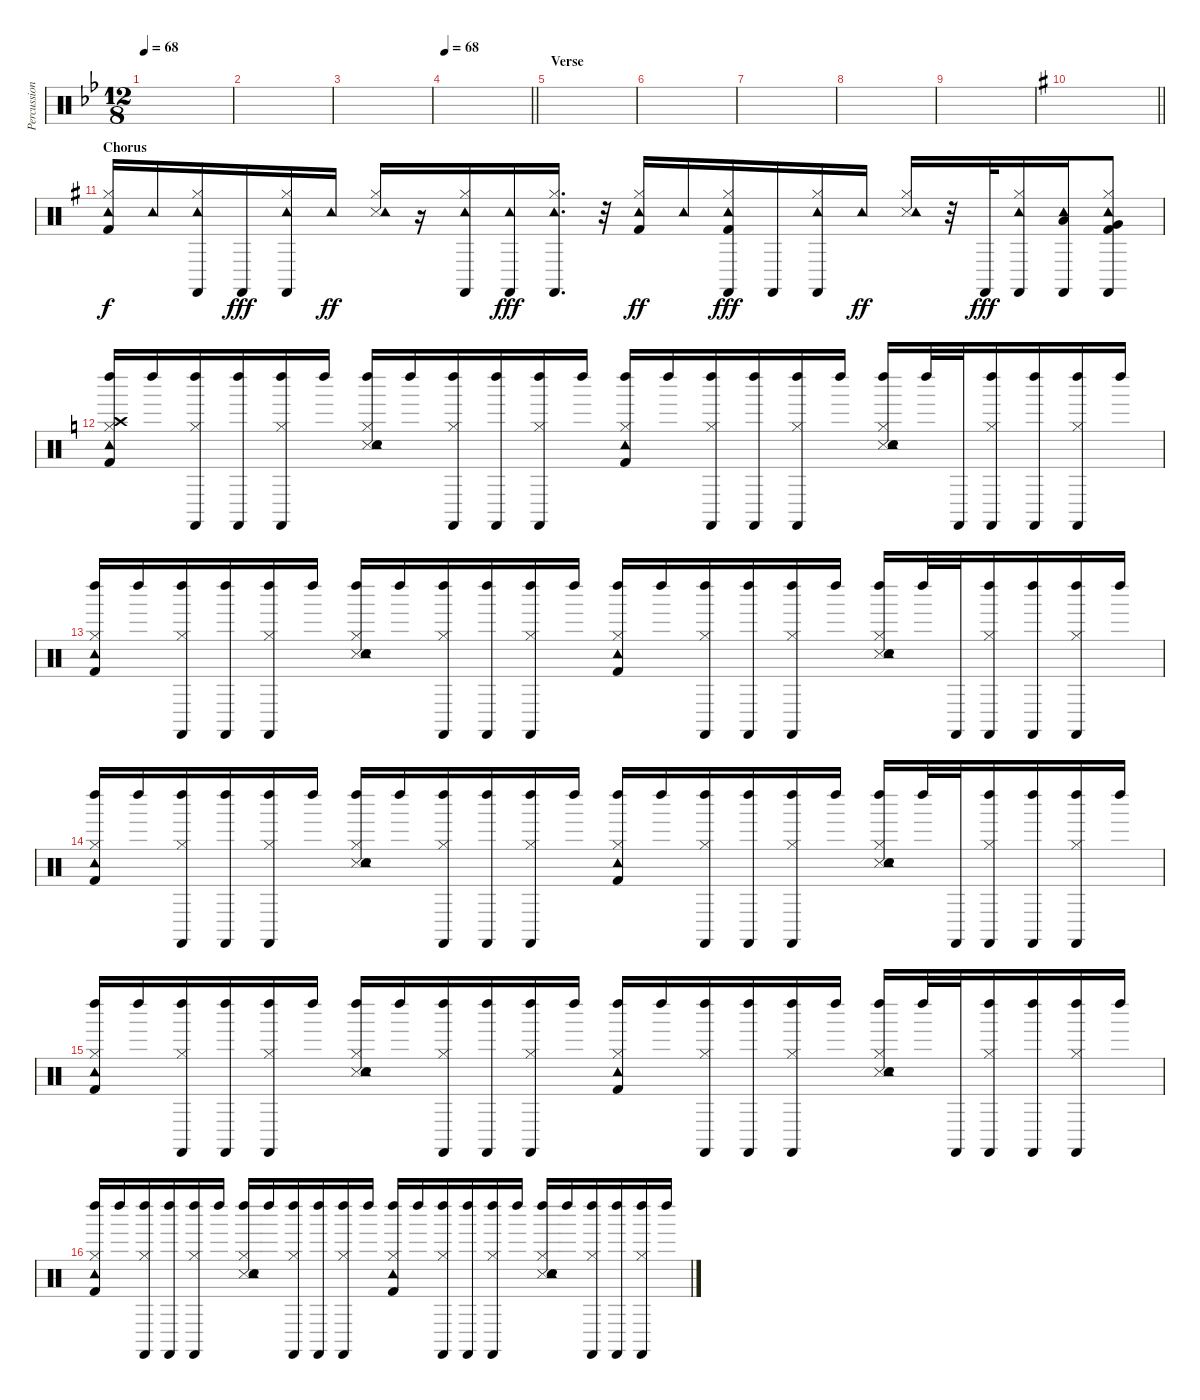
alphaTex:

\track ("Percussion" "Percussion") {instrument percussion}
\staff {score}
\articulation defaults
\ts (12 8)
\tempo 68
\tempo 120
\tempo 68
\clef neutral
\ks gminor
|
|
|
\tempo 68
\barLineRight lightlight
|
\section ("" "Verse")
|
|
|
|
|
\barLineRight lightlight
\ks g
|
\section ("" "Chorus")
("Kick (hit) 2" "Hi-Hat (closed)" "Tambourine (hit)").16{balance 6} "Tambourine (hit)".16 ("Hi-Hat (closed)" "Castanets (hit)" "Tambourine (hit)").16 "Castanets (hit)".16{dy fff} ("Hi-Hat (closed)" "Tambourine (hit)" "Castanets (hit)").16 "Tambourine (hit)".16{dy ff} ("Snare (side stick) 3" "Hi-Hat (closed)" "Tambourine (hit)").16 r.16 ("Hi-Hat (closed)" "Castanets (hit)" "Tambourine (hit)").16 ("Tambourine (hit)" "Castanets (hit)").16{dy fff} ("Hi-Hat (closed)" "Tambourine (hit)" "Castanets (hit)").16{d} r.32 ("Kick (hit) 2" "Hi-Hat (closed)" "Tambourine (hit)").16{dy ff} "Tambourine (hit)".16 ("Kick (hit) 2" "Hi-Hat (closed)" "Tambourine (hit)" "Castanets (hit)").16{dy fff} "Castanets (hit)".16 ("Hi-Hat (closed)" "Tambourine (hit)" "Castanets (hit)").16 "Tambourine (hit)".16{dy ff} ("Snare (side stick) 3" "Hi-Hat (closed)" "Tambourine (hit)").16 r.32 "Castanets (hit)".32{dy fff} ("Hi-Hat (closed)" "Tambourine (hit)" "Castanets (hit)").16 ("Low Tom (hit)" "Tambourine (hit)" "Castanets (hit)").16 ("Hi-Hat (closed)" "Kick (hit) 2" "Tambourine (hit)" "Very Low Tom (hit)" "Castanets (hit)").8 |
\ks c
("Hi-Hat (closed)" "Kick (hit) 2" "Tambourine (hit)" "Crash high (hit)" "Left Maraca (hit)").16 "Left Maraca (hit)".16 ("Hi-Hat (closed)" "Left Maraca (hit)" "Castanets (hit)").16 ("Left Maraca (hit)" "Castanets (hit)").16 ("Hi-Hat (closed)" "Left Maraca (hit)" "Castanets (hit)").16 "Left Maraca (hit)".16 ("Snare (side stick) 3" "Tambourine (hit)" "Hi-Hat (closed)" "Snare (hit) 2" "Left Maraca (hit)").16 "Left Maraca (hit)".16 ("Hi-Hat (closed)" "Left Maraca (hit)" "Castanets (hit)").16 ("Left Maraca (hit)" "Castanets (hit)").16 ("Hi-Hat (closed)" "Left Maraca (hit)" "Castanets (hit)").16 "Left Maraca (hit)".16 ("Kick (hit) 2" "Hi-Hat (closed)" "Tambourine (hit)" "Left Maraca (hit)").16 "Left Maraca (hit)".16 ("Hi-Hat (closed)" "Left Maraca (hit)" "Castanets (hit)").16 ("Left Maraca (hit)" "Castanets (hit)").16 ("Hi-Hat (closed)" "Left Maraca (hit)" "Castanets (hit)").16 "Left Maraca (hit)".16 ("Snare (side stick) 3" "Hi-Hat (closed)" "Tambourine (hit)" "Snare (hit) 2" "Left Maraca (hit)").16 "Left Maraca (hit)".32 "Castanets (hit)".32 ("Hi-Hat (closed)" "Left Maraca (hit)" "Castanets (hit)").16 ("Left Maraca (hit)" "Castanets (hit)").16 ("Hi-Hat (closed)" "Left Maraca (hit)" "Castanets (hit)").16 "Left Maraca (hit)".16 |
("Kick (hit) 2" "Hi-Hat (closed)" "Tambourine (hit)" "Left Maraca (hit)").16 "Left Maraca (hit)".16 ("Hi-Hat (closed)" "Left Maraca (hit)" "Castanets (hit)").16 ("Left Maraca (hit)" "Castanets (hit)").16 ("Hi-Hat (closed)" "Left Maraca (hit)" "Castanets (hit)").16 "Left Maraca (hit)".16 ("Snare (side stick) 3" "Hi-Hat (closed)" "Tambourine (hit)" "Snare (hit) 2" "Left Maraca (hit)").16 "Left Maraca (hit)".16 ("Hi-Hat (closed)" "Left Maraca (hit)" "Castanets (hit)").16 ("Left Maraca (hit)" "Castanets (hit)").16 ("Hi-Hat (closed)" "Left Maraca (hit)" "Castanets (hit)").16 "Left Maraca (hit)".16 ("Kick (hit) 2" "Hi-Hat (closed)" "Tambourine (hit)" "Left Maraca (hit)").16 "Left Maraca (hit)".16 ("Hi-Hat (closed)" "Left Maraca (hit)" "Castanets (hit)").16 ("Left Maraca (hit)" "Castanets (hit)").16 ("Hi-Hat (closed)" "Left Maraca (hit)" "Castanets (hit)").16 "Left Maraca (hit)".16 ("Snare (side stick) 3" "Hi-Hat (closed)" "Tambourine (hit)" "Snare (hit) 2" "Left Maraca (hit)").16 "Left Maraca (hit)".32 "Castanets (hit)".32 ("Hi-Hat (closed)" "Left Maraca (hit)" "Castanets (hit)").16 ("Left Maraca (hit)" "Castanets (hit)").16 ("Hi-Hat (closed)" "Left Maraca (hit)" "Castanets (hit)").16 "Left Maraca (hit)".16 |
("Kick (hit) 2" "Hi-Hat (closed)" "Tambourine (hit)" "Left Maraca (hit)").16 "Left Maraca (hit)".16 ("Hi-Hat (closed)" "Left Maraca (hit)" "Castanets (hit)").16 ("Left Maraca (hit)" "Castanets (hit)").16 ("Hi-Hat (closed)" "Left Maraca (hit)" "Castanets (hit)").16 "Left Maraca (hit)".16 ("Snare (side stick) 3" "Hi-Hat (closed)" "Tambourine (hit)" "Snare (hit) 2" "Left Maraca (hit)").16 "Left Maraca (hit)".16 ("Hi-Hat (closed)" "Left Maraca (hit)" "Castanets (hit)").16 ("Left Maraca (hit)" "Castanets (hit)").16 ("Hi-Hat (closed)" "Left Maraca (hit)" "Castanets (hit)").16 "Left Maraca (hit)".16 ("Kick (hit) 2" "Hi-Hat (closed)" "Tambourine (hit)" "Left Maraca (hit)").16 "Left Maraca (hit)".16 ("Hi-Hat (closed)" "Left Maraca (hit)" "Castanets (hit)").16 ("Left Maraca (hit)" "Castanets (hit)").16 ("Hi-Hat (closed)" "Left Maraca (hit)" "Castanets (hit)").16 "Left Maraca (hit)".16 ("Snare (side stick) 3" "Hi-Hat (closed)" "Tambourine (hit)" "Snare (hit) 2" "Left Maraca (hit)").16 "Left Maraca (hit)".32 "Castanets (hit)".32 ("Hi-Hat (closed)" "Left Maraca (hit)" "Castanets (hit)").16 ("Left Maraca (hit)" "Castanets (hit)").16 ("Hi-Hat (closed)" "Left Maraca (hit)" "Castanets (hit)").16 "Left Maraca (hit)".16 |
("Kick (hit) 2" "Hi-Hat (closed)" "Tambourine (hit)" "Left Maraca (hit)").16 "Left Maraca (hit)".16 ("Hi-Hat (closed)" "Left Maraca (hit)" "Castanets (hit)").16 ("Left Maraca (hit)" "Castanets (hit)").16 ("Hi-Hat (closed)" "Left Maraca (hit)" "Castanets (hit)").16 "Left Maraca (hit)".16 ("Snare (side stick) 3" "Hi-Hat (closed)" "Tambourine (hit)" "Snare (hit) 2" "Left Maraca (hit)").16 "Left Maraca (hit)".16 ("Hi-Hat (closed)" "Left Maraca (hit)" "Castanets (hit)").16 ("Left Maraca (hit)" "Castanets (hit)").16 ("Hi-Hat (closed)" "Left Maraca (hit)" "Castanets (hit)").16 "Left Maraca (hit)".16 ("Kick (hit) 2" "Hi-Hat (closed)" "Tambourine (hit)" "Left Maraca (hit)").16 "Left Maraca (hit)".16 ("Hi-Hat (closed)" "Left Maraca (hit)" "Castanets (hit)").16 ("Left Maraca (hit)" "Castanets (hit)").16 ("Hi-Hat (closed)" "Left Maraca (hit)" "Castanets (hit)").16 "Left Maraca (hit)".16 ("Snare (side stick) 3" "Hi-Hat (closed)" "Tambourine (hit)" "Snare (hit) 2" "Left Maraca (hit)").16 "Left Maraca (hit)".32 "Castanets (hit)".32 ("Hi-Hat (closed)" "Left Maraca (hit)" "Castanets (hit)").16 ("Left Maraca (hit)" "Castanets (hit)").16 ("Hi-Hat (closed)" "Left Maraca (hit)" "Castanets (hit)").16 "Left Maraca (hit)".16 |
("Kick (hit) 2" "Hi-Hat (closed)" "Tambourine (hit)" "Left Maraca (hit)").16 "Left Maraca (hit)".16 ("Hi-Hat (closed)" "Left Maraca (hit)" "Castanets (hit)").16 ("Left Maraca (hit)" "Castanets (hit)").16 ("Hi-Hat (closed)" "Left Maraca (hit)" "Castanets (hit)").16 "Left Maraca (hit)".16 ("Snare (side stick) 3" "Hi-Hat (closed)" "Tambourine (hit)" "Snare (hit) 2" "Left Maraca (hit)").16 "Left Maraca (hit)".16 ("Hi-Hat (closed)" "Left Maraca (hit)" "Castanets (hit)").16 ("Left Maraca (hit)" "Castanets (hit)").16 ("Hi-Hat (closed)" "Left Maraca (hit)" "Castanets (hit)").16 "Left Maraca (hit)".16 ("Kick (hit) 2" "Hi-Hat (closed)" "Tambourine (hit)" "Left Maraca (hit)").16 "Left Maraca (hit)".16 ("Hi-Hat (closed)" "Left Maraca (hit)" "Castanets (hit)").16 ("Left Maraca (hit)" "Castanets (hit)").16 ("Hi-Hat (closed)" "Left Maraca (hit)" "Castanets (hit)").16 "Left Maraca (hit)".16 ("Snare (side stick) 3" "Hi-Hat (closed)" "Tambourine (hit)" "Snare (hit) 2" "Left Maraca (hit)").16 "Left Maraca (hit)".16 ("Hi-Hat (closed)" "Left Maraca (hit)" "Castanets (hit)").16 ("Left Maraca (hit)" "Castanets (hit)").16 ("Hi-Hat (closed)" "Left Maraca (hit)" "Castanets (hit)").16 "Left Maraca (hit)".16
